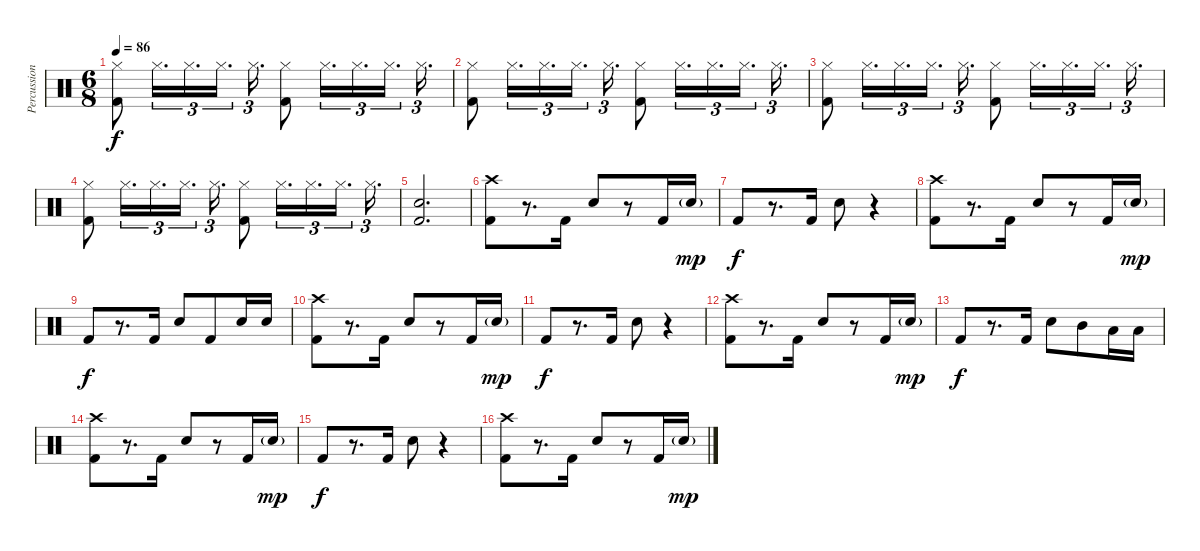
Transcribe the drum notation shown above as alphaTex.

\track ("Percussion" "Percussion") {instrument percussion}
\staff {score}
\articulation defaults
\ts (6 8)
\tempo 86
\clef neutral
\ks c
("Hi-Hat (closed)" "Kick (hit) 2").8{dy f} "Hi-Hat (closed)".16{d tu (3 2)} "Hi-Hat (closed)".16{d tu (3 2)} "Hi-Hat (closed)".16{d tu (3 2)} "Hi-Hat (closed)".16{d tu (3 2)} ("Hi-Hat (closed)" "Kick (hit) 2").8 "Hi-Hat (closed)".16{d tu (3 2)} "Hi-Hat (closed)".16{d tu (3 2)} "Hi-Hat (closed)".16{d tu (3 2)} "Hi-Hat (closed)".16{d tu (3 2)} |
("Hi-Hat (closed)" "Kick (hit) 2").8 "Hi-Hat (closed)".16{d tu (3 2)} "Hi-Hat (closed)".16{d tu (3 2)} "Hi-Hat (closed)".16{d tu (3 2)} "Hi-Hat (closed)".16{d tu (3 2)} ("Hi-Hat (closed)" "Kick (hit) 2").8 "Hi-Hat (closed)".16{d tu (3 2)} "Hi-Hat (closed)".16{d tu (3 2)} "Hi-Hat (closed)".16{d tu (3 2)} "Hi-Hat (closed)".16{d tu (3 2)} |
("Hi-Hat (closed)" "Kick (hit) 2").8 "Hi-Hat (closed)".16{d tu (3 2)} "Hi-Hat (closed)".16{d tu (3 2)} "Hi-Hat (closed)".16{d tu (3 2)} "Hi-Hat (closed)".16{d tu (3 2)} ("Hi-Hat (closed)" "Kick (hit) 2").8 "Hi-Hat (closed)".16{d tu (3 2)} "Hi-Hat (closed)".16{d tu (3 2)} "Hi-Hat (closed)".16{d tu (3 2)} "Hi-Hat (closed)".16{d tu (3 2)} |
("Hi-Hat (closed)" "Kick (hit) 2").8 "Hi-Hat (closed)".16{d tu (3 2)} "Hi-Hat (closed)".16{d tu (3 2)} "Hi-Hat (closed)".16{d tu (3 2)} "Hi-Hat (closed)".16{d tu (3 2)} ("Hi-Hat (closed)" "Kick (hit) 2").8 "Hi-Hat (closed)".16{d tu (3 2)} "Hi-Hat (closed)".16{d tu (3 2)} "Hi-Hat (closed)".16{d tu (3 2)} "Hi-Hat (closed)".16{d tu (3 2)} |
("Snare (hit) 2" "Kick (hit) 2").2{d} |
("Crash high (hit)" "Kick (hit) 2").8 r.8{d} "Kick (hit) 2".16 "Snare (hit) 2".8 r.8 "Kick (hit) 2".16 "Snare (hit) 2"{g}.16{dy mp} |
"Kick (hit) 2".8{dy f} r.8{d} "Kick (hit) 2".16 "Snare (hit) 2".8 r.4 |
("Crash high (hit)" "Kick (hit) 2").8 r.8{d} "Kick (hit) 2".16 "Snare (hit) 2".8 r.8 "Kick (hit) 2".16 "Snare (hit) 2"{g}.16{dy mp} |
"Kick (hit) 2".8{dy f} r.8{d} "Kick (hit) 2".16 "Snare (hit) 2".8 "Kick (hit) 2".8 "Snare (hit) 2".16 "Snare (hit) 2".16 |
("Crash high (hit)" "Kick (hit) 2").8 r.8{d} "Kick (hit) 2".16 "Snare (hit) 2".8 r.8 "Kick (hit) 2".16 "Snare (hit) 2"{g}.16{dy mp} |
"Kick (hit) 2".8{dy f} r.8{d} "Kick (hit) 2".16 "Snare (hit) 2".8 r.4 |
("Crash high (hit)" "Kick (hit) 2").8 r.8{d} "Kick (hit) 2".16 "Snare (hit) 2".8 r.8 "Kick (hit) 2".16 "Snare (hit) 2"{g}.16{dy mp} |
"Kick (hit) 2".8{dy f} r.8{d} "Kick (hit) 2".16 "Snare (hit) 2".8 "Mid Tom (hit)".8 "Low Tom (hit)".16 "Low Tom (hit)".16 |
("Crash high (hit)" "Kick (hit) 2").8 r.8{d} "Kick (hit) 2".16 "Snare (hit) 2".8 r.8 "Kick (hit) 2".16 "Snare (hit) 2"{g}.16{dy mp} |
"Kick (hit) 2".8{dy f} r.8{d} "Kick (hit) 2".16 "Snare (hit) 2".8 r.4 |
("Crash high (hit)" "Kick (hit) 2").8 r.8{d} "Kick (hit) 2".16 "Snare (hit) 2".8 r.8 "Kick (hit) 2".16 "Snare (hit) 2"{g}.16{dy mp}
